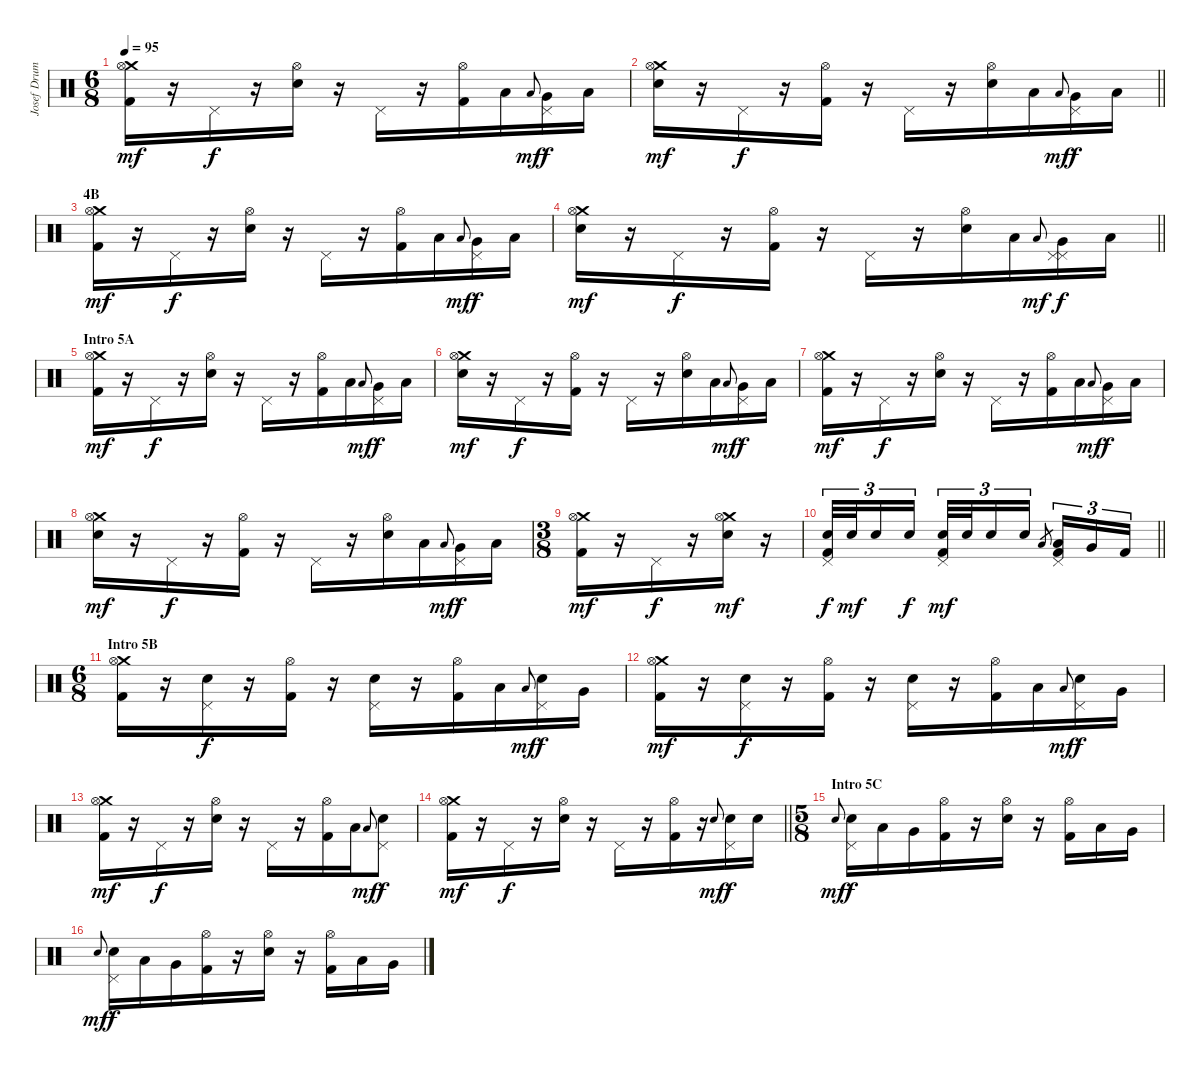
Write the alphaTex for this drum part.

\track ("Josef Drums" "Josef Drum") {instrument percussion}
\staff {score}
\articulation defaults
\ts (6 8)
\tempo 95
\clef neutral
\ks c
("Crash medium (hit)" "Kick (hit) 2" "Hi-Hat (open)").16{dy mf} r.16 "Pedal Hi-Hat (hit)".16{dy f} r.16 ("Electric Snare (hit)" "Hi-Hat (open)").16 r.16 "Pedal Hi-Hat (hit)".16 r.16 ("Kick (hit) 2" "Hi-Hat (open)").16 "Low Tom (hit)".16 "Low Tom (hit)".8{gr onbeat dy mf} ("Very Low Tom (hit)" "Pedal Hi-Hat (hit)").16{dy f} "Low Floor Tom (hit)".16 |
\barLineRight lightlight
("Crash medium (hit)" "Electric Snare (hit)" "Hi-Hat (open)").16{dy mf} r.16 "Pedal Hi-Hat (hit)".16{dy f} r.16 ("Kick (hit) 2" "Hi-Hat (open)").16 r.16 "Pedal Hi-Hat (hit)".16 r.16 ("Electric Snare (hit)" "Hi-Hat (open)").16 "Low Tom (hit)".16 "Low Tom (hit)".8{gr onbeat dy mf} ("Very Low Tom (hit)" "Pedal Hi-Hat (hit)").16{dy f} "Low Floor Tom (hit)".16 |
\section ("" "4B")
("Crash medium (hit)" "Kick (hit) 2" "Hi-Hat (open)").16{dy mf} r.16 "Pedal Hi-Hat (hit)".16{dy f} r.16 ("Electric Snare (hit)" "Hi-Hat (open)").16 r.16 "Pedal Hi-Hat (hit)".16 r.16 ("Kick (hit) 2" "Hi-Hat (open)").16 "Low Tom (hit)".16 "Low Tom (hit)".8{gr onbeat dy mf} ("Very Low Tom (hit)" "Pedal Hi-Hat (hit)").16{dy f} "Low Floor Tom (hit)".16 |
\barLineRight lightlight
("Crash medium (hit)" "Electric Snare (hit)" "Hi-Hat (open)").16{dy mf} r.16 "Pedal Hi-Hat (hit)".16{dy f} r.16 ("Kick (hit) 2" "Hi-Hat (open)").16 r.16 "Pedal Hi-Hat (hit)".16 r.16 ("Electric Snare (hit)" "Hi-Hat (open)").16 "Low Tom (hit)".16 "Low Tom (hit)".8{gr onbeat dy mf} ("Pedal Hi-Hat (hit)" "Very Low Tom (hit)" "Pedal Hi-Hat (hit)").16{dy f} "Low Floor Tom (hit)".16 |
\section ("" "Intro 5A")
("Crash medium (hit)" "Kick (hit) 2" "Hi-Hat (open)").16{dy mf} r.16 "Pedal Hi-Hat (hit)".16{dy f} r.16 ("Electric Snare (hit)" "Hi-Hat (open)").16 r.16 "Pedal Hi-Hat (hit)".16 r.16 ("Kick (hit) 2" "Hi-Hat (open)").16 "Low Tom (hit)".16 "Low Tom (hit)".8{gr onbeat dy mf} ("Very Low Tom (hit)" "Pedal Hi-Hat (hit)").16{dy f} "Low Floor Tom (hit)".16 |
("Crash medium (hit)" "Electric Snare (hit)" "Hi-Hat (open)").16{dy mf} r.16 "Pedal Hi-Hat (hit)".16{dy f} r.16 ("Kick (hit) 2" "Hi-Hat (open)").16 r.16 "Pedal Hi-Hat (hit)".16 r.16 ("Electric Snare (hit)" "Hi-Hat (open)").16 "Low Tom (hit)".16 "Low Tom (hit)".8{gr onbeat dy mf} ("Very Low Tom (hit)" "Pedal Hi-Hat (hit)").16{dy f} "Low Floor Tom (hit)".16 |
("Crash medium (hit)" "Kick (hit) 2" "Hi-Hat (open)").16{dy mf} r.16 "Pedal Hi-Hat (hit)".16{dy f} r.16 ("Electric Snare (hit)" "Hi-Hat (open)").16 r.16 "Pedal Hi-Hat (hit)".16 r.16 ("Kick (hit) 2" "Hi-Hat (open)").16 "Low Tom (hit)".16 "Low Tom (hit)".8{gr onbeat dy mf} ("Very Low Tom (hit)" "Pedal Hi-Hat (hit)").16{dy f} "Low Floor Tom (hit)".16 |
("Crash medium (hit)" "Electric Snare (hit)" "Hi-Hat (open)").16{dy mf} r.16 "Pedal Hi-Hat (hit)".16{dy f} r.16 ("Kick (hit) 2" "Hi-Hat (open)").16 r.16 "Pedal Hi-Hat (hit)".16 r.16 ("Electric Snare (hit)" "Hi-Hat (open)").16 "Low Tom (hit)".16 "Low Tom (hit)".8{gr onbeat dy mf} ("Very Low Tom (hit)" "Pedal Hi-Hat (hit)").16{dy f} "Low Floor Tom (hit)".16 |
\ts (3 8)
("Crash medium (hit)" "Kick (hit) 2" "Hi-Hat (open)").16{dy mf} r.16 "Pedal Hi-Hat (hit)".16{dy f} r.16 ("Crash medium (hit)" "Electric Snare (hit)" "Hi-Hat (open)").16{dy mf} r.16 |
\barLineRight lightlight
("Electric Snare (hit)" "Kick (hit) 2" "Pedal Hi-Hat (hit)").32{tu (3 2) dy f} "Electric Snare (hit)".32{tu (3 2) dy mf} "Electric Snare (hit)".16{tu (3 2)} "Electric Snare (hit)".16{tu (3 2) dy f} ("Electric Snare (hit)" "Kick (hit) 2" "Pedal Hi-Hat (hit)").32{tu (3 2) dy mf} "Electric Snare (hit)".32{tu (3 2)} "Electric Snare (hit)".16{tu (3 2)} "Electric Snare (hit)".16{tu (3 2)} "Low Tom (hit)".8{gr} ("Low Tom (hit)" "Kick (hit) 2" "Pedal Hi-Hat (hit)").16{tu (3 2)} "Very Low Tom (hit)".16{tu (3 2)} "Kick (hit) 2".16{tu (3 2)} |
\ts (6 8)
\section ("" "Intro 5B")
("Crash medium (hit)" "Kick (hit) 2" "Hi-Hat (open)").16 r.16 ("Electric Snare (hit)" "Pedal Hi-Hat (hit)").16{dy f} r.16 ("Kick (hit) 2" "Hi-Hat (open)").16 r.16 ("Electric Snare (hit)" "Pedal Hi-Hat (hit)").16 r.16 ("Kick (hit) 2" "Hi-Hat (open)").16 "Low Tom (hit)".16 "Low Tom (hit)".8{gr onbeat dy mf} ("Electric Snare (hit)" "Pedal Hi-Hat (hit)").16{dy f} "Very Low Tom (hit)".16 |
("Crash medium (hit)" "Kick (hit) 2" "Hi-Hat (open)").16{dy mf} r.16 ("Electric Snare (hit)" "Pedal Hi-Hat (hit)").16{dy f} r.16 ("Kick (hit) 2" "Hi-Hat (open)").16 r.16 ("Electric Snare (hit)" "Pedal Hi-Hat (hit)").16 r.16 ("Kick (hit) 2" "Hi-Hat (open)").16 "Low Tom (hit)".16 "Low Tom (hit)".8{gr onbeat dy mf} ("Electric Snare (hit)" "Pedal Hi-Hat (hit)").16{dy f} "Very Low Tom (hit)".16 |
("Crash medium (hit)" "Kick (hit) 2" "Hi-Hat (open)").16{dy mf} r.16 "Pedal Hi-Hat (hit)".16{dy f} r.16 ("Electric Snare (hit)" "Hi-Hat (open)").16 r.16 "Pedal Hi-Hat (hit)".16 r.16 ("Kick (hit) 2" "Hi-Hat (open)").16 "Low Tom (hit)".16 "Low Tom (hit)".8{gr onbeat dy mf} ("Electric Snare (hit)" "Pedal Hi-Hat (hit)").8{dy f} |
\barLineRight lightlight
("Crash medium (hit)" "Kick (hit) 2" "Hi-Hat (open)").16{dy mf} r.16 "Pedal Hi-Hat (hit)".16{dy f} r.16 ("Electric Snare (hit)" "Hi-Hat (open)").16 r.16 "Pedal Hi-Hat (hit)".16 r.16 ("Kick (hit) 2" "Hi-Hat (open)").16 r.16 "Electric Snare (hit)".8{gr onbeat dy mf} ("Electric Snare (hit)" "Pedal Hi-Hat (hit)").16{dy f} "Electric Snare (hit)".16 |
\ts (5 8)
\section ("" "Intro 5C")
"Electric Snare (hit)".8{gr onbeat dy mf} ("Electric Snare (hit)" "Pedal Hi-Hat (hit)").16{dy f} "Low Tom (hit)".16 "Very Low Tom (hit)".16 ("Kick (hit) 2" "Hi-Hat (open)").16 r.16 ("Electric Snare (hit)" "Hi-Hat (open)").16 r.16 ("Kick (hit) 2" "Hi-Hat (open)").16 "Low Tom (hit)".16 "Very Low Tom (hit)".16 |
"Electric Snare (hit)".8{gr onbeat dy mf} ("Electric Snare (hit)" "Pedal Hi-Hat (hit)").16{dy f} "Low Tom (hit)".16 "Very Low Tom (hit)".16 ("Kick (hit) 2" "Hi-Hat (open)").16 r.16 ("Electric Snare (hit)" "Hi-Hat (open)").16 r.16 ("Kick (hit) 2" "Hi-Hat (open)").16 "Low Tom (hit)".16 "Very Low Tom (hit)".16
